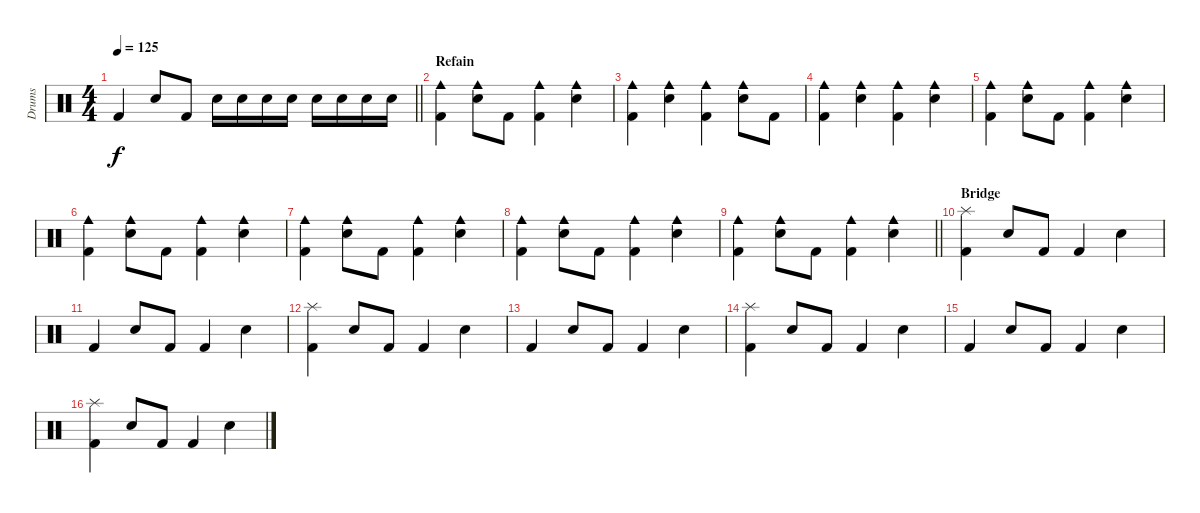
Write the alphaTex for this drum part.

\track ("Drums" "Drums") {instrument percussion}
\staff {score}
\articulation defaults
\ts (4 4)
\tempo 125
\clef neutral
\barLineRight lightlight
\ks c "Kick (hit) 2".4{dy f} "Snare (hit) 2".8 "Kick (hit) 2".8 "Snare (hit) 2".16 "Snare (hit) 2".16 "Snare (hit) 2".16 "Snare (hit) 2".16 "Snare (hit) 2".16 "Snare (hit) 2".16 "Snare (hit) 2".16 "Snare (hit) 2".16
|
\section ("" "Refain")
("Cowbell medium (hit)" "Kick (hit) 2").4 ("Cowbell medium (hit)" "Snare (hit) 2").8 "Kick (hit) 2".8 ("Cowbell medium (hit)" "Kick (hit) 2").4 ("Cowbell medium (hit)" "Snare (hit) 2").4 |
("Cowbell medium (hit)" "Kick (hit) 2").4 ("Cowbell medium (hit)" "Snare (hit) 2").4 ("Cowbell medium (hit)" "Kick (hit) 2").4 ("Cowbell medium (hit)" "Snare (hit) 2").8 "Kick (hit) 2".8 |
("Cowbell medium (hit)" "Kick (hit) 2").4 ("Cowbell medium (hit)" "Snare (hit) 2").4 ("Cowbell medium (hit)" "Kick (hit) 2").4 ("Cowbell medium (hit)" "Snare (hit) 2").4 |
("Cowbell medium (hit)" "Kick (hit) 2").4 ("Cowbell medium (hit)" "Snare (hit) 2").8 "Kick (hit) 2".8 ("Cowbell medium (hit)" "Kick (hit) 2").4 ("Cowbell medium (hit)" "Snare (hit) 2").4 |
("Cowbell medium (hit)" "Kick (hit) 2").4 ("Cowbell medium (hit)" "Snare (hit) 2").8 "Kick (hit) 2".8 ("Cowbell medium (hit)" "Kick (hit) 2").4 ("Cowbell medium (hit)" "Snare (hit) 2").4 |
("Cowbell medium (hit)" "Kick (hit) 2").4 ("Cowbell medium (hit)" "Snare (hit) 2").8 "Kick (hit) 2".8 ("Cowbell medium (hit)" "Kick (hit) 2").4 ("Cowbell medium (hit)" "Snare (hit) 2").4 |
("Cowbell medium (hit)" "Kick (hit) 2").4 ("Cowbell medium (hit)" "Snare (hit) 2").8 "Kick (hit) 2".8 ("Cowbell medium (hit)" "Kick (hit) 2").4 ("Cowbell medium (hit)" "Snare (hit) 2").4 |
\barLineRight lightlight
("Cowbell medium (hit)" "Kick (hit) 2").4 ("Cowbell medium (hit)" "Snare (hit) 2").8 "Kick (hit) 2".8 ("Cowbell medium (hit)" "Kick (hit) 2").4 ("Cowbell medium (hit)" "Snare (hit) 2").4 |
\section ("" "Bridge")
("Splash (hit)" "Kick (hit) 2").4 "Snare (hit) 2".8 "Kick (hit) 2".8 "Kick (hit) 2".4 "Snare (hit) 2".4 |
"Kick (hit) 2".4 "Snare (hit) 2".8 "Kick (hit) 2".8 "Kick (hit) 2".4 "Snare (hit) 2".4 |
("Splash (hit)" "Kick (hit) 2").4 "Snare (hit) 2".8 "Kick (hit) 2".8 "Kick (hit) 2".4 "Snare (hit) 2".4 |
"Kick (hit) 2".4 "Snare (hit) 2".8 "Kick (hit) 2".8 "Kick (hit) 2".4 "Snare (hit) 2".4 |
("Splash (hit)" "Kick (hit) 2").4 "Snare (hit) 2".8 "Kick (hit) 2".8 "Kick (hit) 2".4 "Snare (hit) 2".4 |
"Kick (hit) 2".4 "Snare (hit) 2".8 "Kick (hit) 2".8 "Kick (hit) 2".4 "Snare (hit) 2".4 |
("Splash (hit)" "Kick (hit) 2").4 "Snare (hit) 2".8 "Kick (hit) 2".8 "Kick (hit) 2".4 "Snare (hit) 2".4
